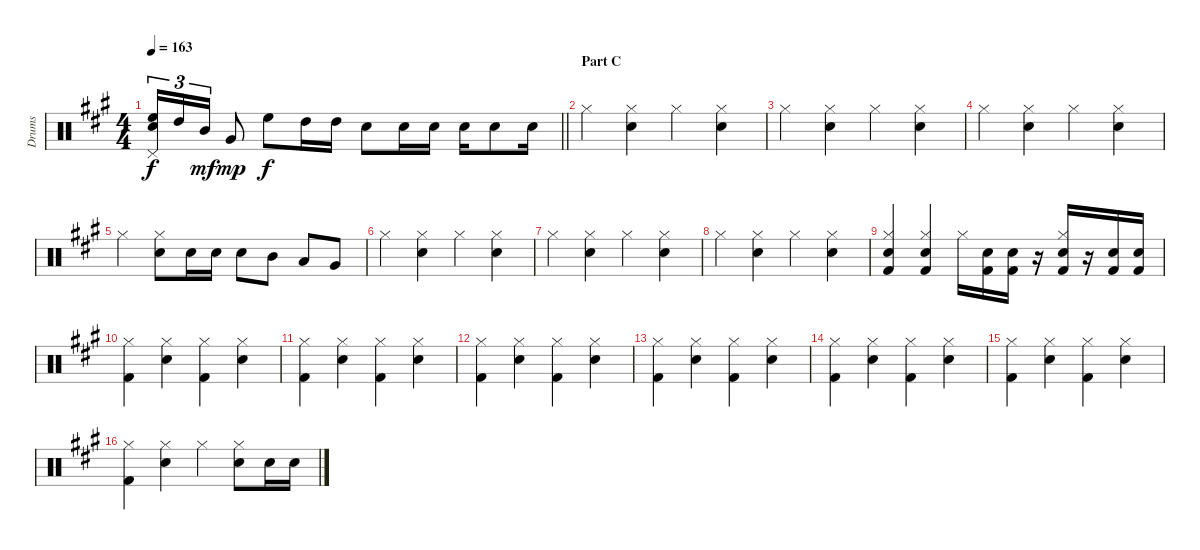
\track ("Drums" "Drums") {instrument percussion}
\staff {score}
\articulation defaults
\ts (4 4)
\tempo 163
\clef neutral
\barLineRight lightlight
\ks a
("Pedal Hi-Hat (hit)" "High Floor Tom (hit)" "Snare (hit) 2").16{tu (3 2) dy f} "High Tom (hit)".16{tu (3 2)} "Mid Tom (hit)".16{tu (3 2) dy mf} "Very Low Tom (hit)".8{dy mp} "High Floor Tom (hit)".8{dy f} "High Tom (hit)".16 "High Tom (hit)".16 "Snare (hit) 2".8 "Snare (hit) 2".16 "Snare (hit) 2".16 "Snare (hit) 2".16 "Snare (hit) 2".8 "Snare (hit) 2".16 |
\section ("" "Part C")
"Hi-Hat (closed)".4 ("Hi-Hat (closed)" "Snare (hit) 2").4 "Hi-Hat (closed)".4 ("Hi-Hat (closed)" "Snare (hit) 2").4 |
"Hi-Hat (closed)".4 ("Hi-Hat (closed)" "Snare (hit) 2").4 "Hi-Hat (closed)".4 ("Hi-Hat (closed)" "Snare (hit) 2").4 |
"Hi-Hat (closed)".4 ("Hi-Hat (closed)" "Snare (hit) 2").4 "Hi-Hat (closed)".4 ("Hi-Hat (closed)" "Snare (hit) 2").4 |
"Hi-Hat (closed)".4 ("Hi-Hat (closed)" "Snare (hit) 2").8 "Snare (hit) 2".16 "Snare (hit) 2".16 "Snare (hit) 2".8 "Mid Tom (hit)".8 "Low Tom (hit)".8 "Very Low Tom (hit)".8 |
"Hi-Hat (closed)".4 ("Hi-Hat (closed)" "Snare (hit) 2").4 "Hi-Hat (closed)".4 ("Hi-Hat (closed)" "Snare (hit) 2").4 |
"Hi-Hat (closed)".4 ("Hi-Hat (closed)" "Snare (hit) 2").4 "Hi-Hat (closed)".4 ("Hi-Hat (closed)" "Snare (hit) 2").4 |
"Hi-Hat (closed)".4 ("Hi-Hat (closed)" "Snare (hit) 2").4 "Hi-Hat (closed)".4 ("Hi-Hat (closed)" "Snare (hit) 2").4 |
("Hi-Hat (closed)" "Snare (hit) 2" "Kick (hit) 2").4 ("Hi-Hat (closed)" "Snare (hit) 2" "Kick (hit) 2").4 "Hi-Hat (closed)".16 ("Snare (hit) 2" "Kick (hit) 2").16 ("Snare (hit) 2" "Kick (hit) 2").16 r.16 ("Hi-Hat (closed)" "Snare (hit) 2" "Kick (hit) 2").16 r.16 ("Snare (hit) 2" "Kick (hit) 2").16 ("Snare (hit) 2" "Kick (hit) 2").16 |
("Hi-Hat (closed)" "Kick (hit) 2").4 ("Hi-Hat (closed)" "Snare (hit) 2").4 ("Hi-Hat (closed)" "Kick (hit) 2").4 ("Hi-Hat (closed)" "Snare (hit) 2").4 |
("Hi-Hat (closed)" "Kick (hit) 2").4 ("Hi-Hat (closed)" "Snare (hit) 2").4 ("Hi-Hat (closed)" "Kick (hit) 2").4 ("Hi-Hat (closed)" "Snare (hit) 2").4 |
("Hi-Hat (closed)" "Kick (hit) 2").4 ("Hi-Hat (closed)" "Snare (hit) 2").4 ("Hi-Hat (closed)" "Kick (hit) 2").4 ("Hi-Hat (closed)" "Snare (hit) 2").4 |
("Hi-Hat (closed)" "Kick (hit) 2").4 ("Hi-Hat (closed)" "Snare (hit) 2").4 ("Hi-Hat (closed)" "Kick (hit) 2").4 ("Hi-Hat (closed)" "Snare (hit) 2").4 |
("Hi-Hat (closed)" "Kick (hit) 2").4 ("Hi-Hat (closed)" "Snare (hit) 2").4 ("Hi-Hat (closed)" "Kick (hit) 2").4 ("Hi-Hat (closed)" "Snare (hit) 2").4 |
("Hi-Hat (closed)" "Kick (hit) 2").4 ("Hi-Hat (closed)" "Snare (hit) 2").4 ("Hi-Hat (closed)" "Kick (hit) 2").4 ("Hi-Hat (closed)" "Snare (hit) 2").4 |
("Hi-Hat (closed)" "Kick (hit) 2").4 ("Hi-Hat (closed)" "Snare (hit) 2").4 "Hi-Hat (closed)".4 ("Hi-Hat (closed)" "Snare (hit) 2").8 "Snare (hit) 2".16 "Snare (hit) 2".16
